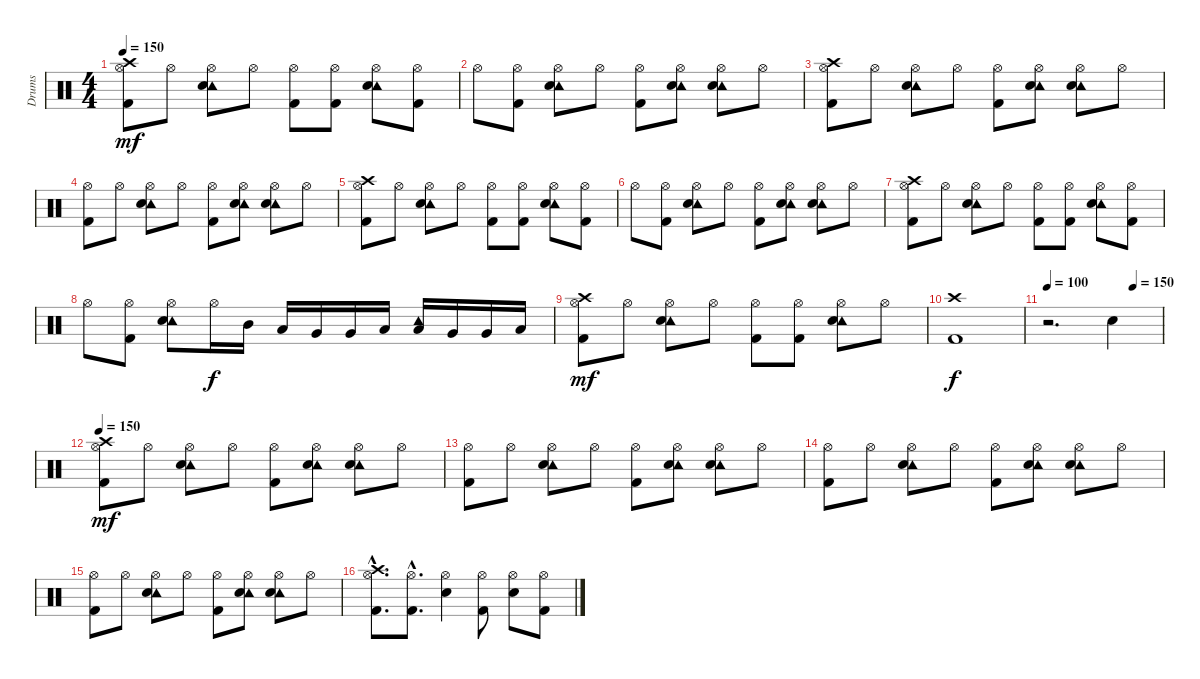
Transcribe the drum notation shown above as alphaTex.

\track ("Drums" "Drums") {instrument percussion}
\staff {score}
\articulation defaults
\ts (4 4)
\tempo 150
\clef neutral
\ks c
("Crash high (hit)" "Hi-Hat (open)" "Kick (hit) 2").8{dy mf} "Hi-Hat (open)".8 ("Tambourine (hit)" "Hi-Hat (open)" "Snare (hit) 2").8 "Hi-Hat (open)".8 ("Hi-Hat (open)" "Kick (hit) 2").8 ("Hi-Hat (open)" "Kick (hit) 2").8 ("Tambourine (hit)" "Hi-Hat (open)" "Snare (hit) 2").8 ("Hi-Hat (open)" "Kick (hit) 2").8 |
"Hi-Hat (open)".8 ("Hi-Hat (open)" "Kick (hit) 2").8 ("Tambourine (hit)" "Hi-Hat (open)" "Snare (hit) 2").8 "Hi-Hat (open)".8 ("Hi-Hat (open)" "Kick (hit) 2").8 ("Tambourine (hit)" "Hi-Hat (open)" "Snare (hit) 2").8 ("Tambourine (hit)" "Hi-Hat (open)" "Snare (hit) 2").8 "Hi-Hat (open)".8 |
("Crash high (hit)" "Hi-Hat (open)" "Kick (hit) 2").8 "Hi-Hat (open)".8 ("Tambourine (hit)" "Hi-Hat (open)" "Snare (hit) 2").8 "Hi-Hat (open)".8 ("Hi-Hat (open)" "Kick (hit) 2").8 ("Tambourine (hit)" "Hi-Hat (open)" "Snare (hit) 2").8 ("Tambourine (hit)" "Hi-Hat (open)" "Snare (hit) 2").8 "Hi-Hat (open)".8 |
("Hi-Hat (open)" "Kick (hit) 2").8 "Hi-Hat (open)".8 ("Tambourine (hit)" "Hi-Hat (open)" "Snare (hit) 2").8 "Hi-Hat (open)".8 ("Hi-Hat (open)" "Kick (hit) 2").8 ("Tambourine (hit)" "Hi-Hat (open)" "Snare (hit) 2").8 ("Tambourine (hit)" "Hi-Hat (open)" "Snare (hit) 2").8 "Hi-Hat (open)".8 |
("Crash high (hit)" "Hi-Hat (open)" "Kick (hit) 2").8 "Hi-Hat (open)".8 ("Tambourine (hit)" "Hi-Hat (open)" "Snare (hit) 2").8 "Hi-Hat (open)".8 ("Hi-Hat (open)" "Kick (hit) 2").8 ("Hi-Hat (open)" "Kick (hit) 2").8 ("Tambourine (hit)" "Hi-Hat (open)" "Snare (hit) 2").8 ("Hi-Hat (open)" "Kick (hit) 2").8 |
"Hi-Hat (open)".8 ("Hi-Hat (open)" "Kick (hit) 2").8 ("Tambourine (hit)" "Hi-Hat (open)" "Snare (hit) 2").8 "Hi-Hat (open)".8 ("Hi-Hat (open)" "Kick (hit) 2").8 ("Tambourine (hit)" "Hi-Hat (open)" "Snare (hit) 2").8 ("Tambourine (hit)" "Hi-Hat (open)" "Snare (hit) 2").8 "Hi-Hat (open)".8 |
("Crash high (hit)" "Hi-Hat (open)" "Kick (hit) 2").8 "Hi-Hat (open)".8 ("Tambourine (hit)" "Hi-Hat (open)" "Snare (hit) 2").8 "Hi-Hat (open)".8 ("Hi-Hat (open)" "Kick (hit) 2").8 ("Hi-Hat (open)" "Kick (hit) 2").8 ("Tambourine (hit)" "Hi-Hat (open)" "Snare (hit) 2").8 ("Hi-Hat (open)" "Kick (hit) 2").8 |
"Hi-Hat (open)".8 ("Hi-Hat (open)" "Kick (hit) 2").8 ("Tambourine (hit)" "Hi-Hat (open)" "Snare (hit) 2").8 "Hi-Hat (open)".16{dy f} "Mid Tom (hit)".16 "Low Tom (hit)".16 "Very Low Tom (hit)".16 "Very Low Tom (hit)".16 "Low Floor Tom (hit)".16 ("Tambourine (hit)" "Low Floor Tom (hit)").16 "Very Low Tom (hit)".16 "Very Low Tom (hit)".16 "Low Tom (hit)".16 |
("Crash high (hit)" "Hi-Hat (open)" "Kick (hit) 2").8{dy mf} "Hi-Hat (open)".8 ("Tambourine (hit)" "Hi-Hat (open)" "Snare (hit) 2").8 "Hi-Hat (open)".8 ("Hi-Hat (open)" "Kick (hit) 2").8 ("Hi-Hat (open)" "Kick (hit) 2").8 ("Tambourine (hit)" "Hi-Hat (open)" "Snare (hit) 2").8 "Hi-Hat (open)".8 |
("Crash high (hit)" "Kick (hit) 2").1{dy f} |
\tempo 100
\tempo (150 0.75)
r.2{d} "Snare (hit) 2".4 |
\tempo 150
("Crash high (hit)" "Hi-Hat (open)" "Kick (hit) 2").8{dy mf} "Hi-Hat (open)".8 ("Tambourine (hit)" "Hi-Hat (open)" "Snare (hit) 2").8 "Hi-Hat (open)".8 ("Hi-Hat (open)" "Kick (hit) 2").8 ("Tambourine (hit)" "Hi-Hat (open)" "Snare (hit) 2").8 ("Tambourine (hit)" "Hi-Hat (open)" "Snare (hit) 2").8 "Hi-Hat (open)".8 |
("Hi-Hat (open)" "Kick (hit) 2").8 "Hi-Hat (open)".8 ("Tambourine (hit)" "Hi-Hat (open)" "Snare (hit) 2").8 "Hi-Hat (open)".8 ("Hi-Hat (open)" "Kick (hit) 2").8 ("Tambourine (hit)" "Hi-Hat (open)" "Snare (hit) 2").8 ("Tambourine (hit)" "Hi-Hat (open)" "Snare (hit) 2").8 "Hi-Hat (open)".8 |
("Hi-Hat (open)" "Kick (hit) 2").8 "Hi-Hat (open)".8 ("Tambourine (hit)" "Hi-Hat (open)" "Snare (hit) 2").8 "Hi-Hat (open)".8 ("Hi-Hat (open)" "Kick (hit) 2").8 ("Tambourine (hit)" "Hi-Hat (open)" "Snare (hit) 2").8 ("Tambourine (hit)" "Hi-Hat (open)" "Snare (hit) 2").8 "Hi-Hat (open)".8 |
("Hi-Hat (open)" "Kick (hit) 2").8 "Hi-Hat (open)".8 ("Tambourine (hit)" "Hi-Hat (open)" "Snare (hit) 2").8 "Hi-Hat (open)".8 ("Hi-Hat (open)" "Kick (hit) 2").8 ("Tambourine (hit)" "Hi-Hat (open)" "Snare (hit) 2").8 ("Tambourine (hit)" "Hi-Hat (open)" "Snare (hit) 2").8 "Hi-Hat (open)".8 |
("Crash high (hit)"{hac} "Hi-Hat (open)"{hac} "Kick (hit) 2"{hac}).8{d} ("Hi-Hat (open)"{hac} "Kick (hit) 2"{hac}).8{d} ("Hi-Hat (open)" "Snare (hit) 2").4 ("Hi-Hat (open)" "Kick (hit) 2").8 ("Hi-Hat (open)" "Snare (hit) 2").8 ("Hi-Hat (open)" "Kick (hit) 2").8
